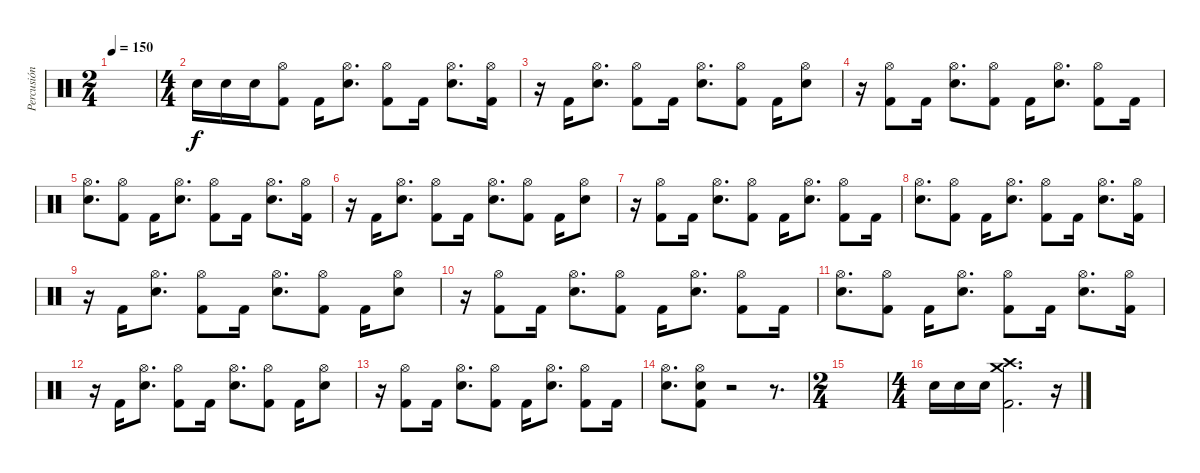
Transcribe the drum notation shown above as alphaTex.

\track ("Percusión" "Percusión") {instrument percussion}
\staff {score}
\articulation defaults
\ts (2 4)
\tempo 150
\clef neutral
\ks c
|
\ts (4 4)
"Electric Snare (hit)".16 "Electric Snare (hit)".16 "Electric Snare (hit)".16 ("Hi-Hat (open)" "Kick (hit) 2").8 "Kick (hit) 2".16 ("Hi-Hat (open)" "Electric Snare (hit)").8{d} ("Hi-Hat (open)" "Kick (hit) 2").8 "Kick (hit) 2".16 ("Hi-Hat (open)" "Electric Snare (hit)").8{d} ("Hi-Hat (open)" "Kick (hit) 2").16 |
r.16 "Kick (hit) 2".16 ("Hi-Hat (open)" "Electric Snare (hit)").8{d} ("Hi-Hat (open)" "Kick (hit) 2").8 "Kick (hit) 2".16 ("Hi-Hat (open)" "Electric Snare (hit)").8{d} ("Hi-Hat (open)" "Kick (hit) 2").8 "Kick (hit) 2".16 ("Hi-Hat (open)" "Electric Snare (hit)").8 |
r.16 ("Hi-Hat (open)" "Kick (hit) 2").8 "Kick (hit) 2".16 ("Hi-Hat (open)" "Electric Snare (hit)").8{d} ("Hi-Hat (open)" "Kick (hit) 2").8 "Kick (hit) 2".16 ("Hi-Hat (open)" "Electric Snare (hit)").8{d} ("Hi-Hat (open)" "Kick (hit) 2").8 "Kick (hit) 2".16 |
("Hi-Hat (open)" "Electric Snare (hit)").8{d} ("Hi-Hat (open)" "Kick (hit) 2").8 "Kick (hit) 2".16 ("Hi-Hat (open)" "Electric Snare (hit)").8{d} ("Hi-Hat (open)" "Kick (hit) 2").8 "Kick (hit) 2".16 ("Hi-Hat (open)" "Electric Snare (hit)").8{d} ("Hi-Hat (open)" "Kick (hit) 2").16 |
r.16 "Kick (hit) 2".16 ("Hi-Hat (open)" "Electric Snare (hit)").8{d} ("Hi-Hat (open)" "Kick (hit) 2").8 "Kick (hit) 2".16 ("Hi-Hat (open)" "Electric Snare (hit)").8{d} ("Hi-Hat (open)" "Kick (hit) 2").8 "Kick (hit) 2".16 ("Hi-Hat (open)" "Electric Snare (hit)").8 |
r.16 ("Hi-Hat (open)" "Kick (hit) 2").8 "Kick (hit) 2".16 ("Hi-Hat (open)" "Electric Snare (hit)").8{d} ("Hi-Hat (open)" "Kick (hit) 2").8 "Kick (hit) 2".16 ("Hi-Hat (open)" "Electric Snare (hit)").8{d} ("Hi-Hat (open)" "Kick (hit) 2").8 "Kick (hit) 2".16 |
("Hi-Hat (open)" "Electric Snare (hit)").8{d} ("Hi-Hat (open)" "Kick (hit) 2").8 "Kick (hit) 2".16 ("Hi-Hat (open)" "Electric Snare (hit)").8{d} ("Hi-Hat (open)" "Kick (hit) 2").8 "Kick (hit) 2".16 ("Hi-Hat (open)" "Electric Snare (hit)").8{d} ("Hi-Hat (open)" "Kick (hit) 2").16 |
r.16 "Kick (hit) 2".16 ("Hi-Hat (open)" "Electric Snare (hit)").8{d} ("Hi-Hat (open)" "Kick (hit) 2").8 "Kick (hit) 2".16 ("Hi-Hat (open)" "Electric Snare (hit)").8{d} ("Hi-Hat (open)" "Kick (hit) 2").8 "Kick (hit) 2".16 ("Hi-Hat (open)" "Electric Snare (hit)").8 |
r.16 ("Hi-Hat (open)" "Kick (hit) 2").8 "Kick (hit) 2".16 ("Hi-Hat (open)" "Electric Snare (hit)").8{d} ("Hi-Hat (open)" "Kick (hit) 2").8 "Kick (hit) 2".16 ("Hi-Hat (open)" "Electric Snare (hit)").8{d} ("Hi-Hat (open)" "Kick (hit) 2").8 "Kick (hit) 2".16 |
("Hi-Hat (open)" "Electric Snare (hit)").8{d} ("Hi-Hat (open)" "Kick (hit) 2").8 "Kick (hit) 2".16 ("Hi-Hat (open)" "Electric Snare (hit)").8{d} ("Hi-Hat (open)" "Kick (hit) 2").8 "Kick (hit) 2".16 ("Hi-Hat (open)" "Electric Snare (hit)").8{d} ("Hi-Hat (open)" "Kick (hit) 2").16 |
r.16 "Kick (hit) 2".16 ("Hi-Hat (open)" "Electric Snare (hit)").8{d} ("Hi-Hat (open)" "Kick (hit) 2").8 "Kick (hit) 2".16 ("Hi-Hat (open)" "Electric Snare (hit)").8{d} ("Hi-Hat (open)" "Kick (hit) 2").8 "Kick (hit) 2".16 ("Hi-Hat (open)" "Electric Snare (hit)").8 |
r.16 ("Hi-Hat (open)" "Kick (hit) 2").8 "Kick (hit) 2".16 ("Hi-Hat (open)" "Electric Snare (hit)").8{d} ("Hi-Hat (open)" "Kick (hit) 2").8 "Kick (hit) 2".16 ("Hi-Hat (open)" "Electric Snare (hit)").8{d} ("Hi-Hat (open)" "Kick (hit) 2").8 "Kick (hit) 2".16 |
("Hi-Hat (open)" "Electric Snare (hit)").8{d} ("Hi-Hat (open)" "Electric Snare (hit)" "Kick (hit) 2").8 r.2 r.8{d} |
\ts (2 4)
|
\ts (4 4)
"Electric Snare (hit)".16 "Electric Snare (hit)".16 "Electric Snare (hit)".16 ("Crash medium (hit)" "Crash high (hit)" "Kick (hit) 2").2{d} r.16
